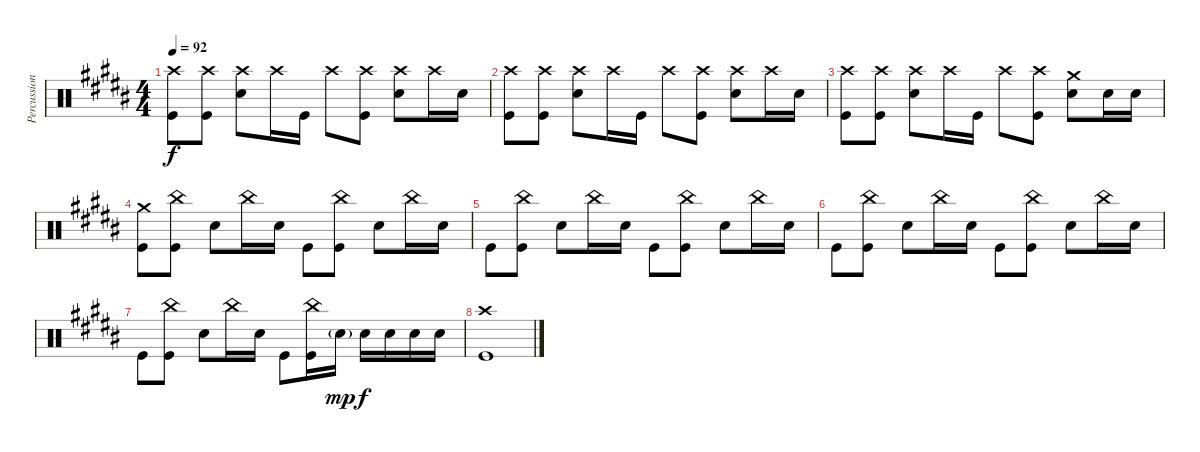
\track ("Percussion" "Percussion") {instrument percussion}
\staff {score}
\articulation defaults
\ts (4 4)
\tempo 92
\clef neutral
\ks b
("Crash high (hit)" "Kick (hit)").8{dy f} ("Crash high (hit)" "Kick (hit)").8 ("Crash high (hit)" "Electric Snare (hit)").8 "Crash high (hit)".16 "Kick (hit)".16 "Crash high (hit)".8 ("Crash high (hit)" "Kick (hit)").8 ("Crash high (hit)" "Electric Snare (hit)").8 "Crash high (hit)".16 "Electric Snare (hit)".16 |
("Crash high (hit)" "Kick (hit)").8 ("Crash high (hit)" "Kick (hit)").8 ("Crash high (hit)" "Electric Snare (hit)").8 "Crash high (hit)".16 "Kick (hit)".16 "Crash high (hit)".8 ("Crash high (hit)" "Kick (hit)").8 ("Crash high (hit)" "Electric Snare (hit)").8 "Crash high (hit)".16 "Electric Snare (hit)".16 |
("Crash high (hit)" "Kick (hit)").8 ("Crash high (hit)" "Kick (hit)").8 ("Crash high (hit)" "Electric Snare (hit)").8 "Crash high (hit)".16 "Kick (hit)".16 "Crash high (hit)".8 ("Crash high (hit)" "Kick (hit)").8 ("Crash medium (hit)" "Electric Snare (hit)").8 "Electric Snare (hit)".16 "Electric Snare (hit)".16 |
("Crash medium (hit)" "Kick (hit)").8 ("China (hit)" "Kick (hit)").8 "Electric Snare (hit)".8 "China (hit)".16 "Electric Snare (hit)".16 "Kick (hit)".8 ("China (hit)" "Kick (hit)").8 "Electric Snare (hit)".8 "China (hit)".16 "Electric Snare (hit)".16 |
"Kick (hit)".8 ("China (hit)" "Kick (hit)").8 "Electric Snare (hit)".8 "China (hit)".16 "Electric Snare (hit)".16 "Kick (hit)".8 ("China (hit)" "Kick (hit)").8 "Electric Snare (hit)".8 "China (hit)".16 "Electric Snare (hit)".16 |
"Kick (hit)".8 ("China (hit)" "Kick (hit)").8 "Electric Snare (hit)".8 "China (hit)".16 "Electric Snare (hit)".16 "Kick (hit)".8 ("China (hit)" "Kick (hit)").8 "Electric Snare (hit)".8 "China (hit)".16 "Electric Snare (hit)".16 |
"Kick (hit)".8 ("China (hit)" "Kick (hit)").8 "Electric Snare (hit)".8 "China (hit)".16 "Electric Snare (hit)".16 "Kick (hit)".8 ("China (hit)" "Kick (hit)").16 "Electric Snare (hit)"{g}.16{dy mp} "Electric Snare (hit)".16{dy f} "Electric Snare (hit)".16 "Electric Snare (hit)".16 "Electric Snare (hit)".16 |
("Crash high (hit)" "Kick (hit)").1
